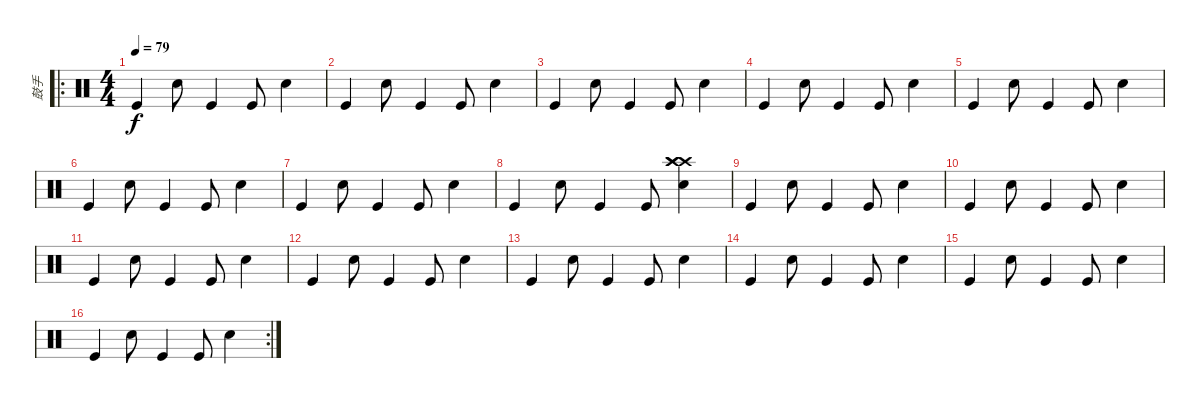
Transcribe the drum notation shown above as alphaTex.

\track ("鼓手" "鼓手") {instrument percussion}
\staff {score}
\articulation defaults
\ro
\ts (4 4)
\tempo 79
\clef neutral
\ks c "Kick (hit)".4{dy f} "Snare (hit) 2".8 "Kick (hit)".4 "Kick (hit)".8 "Snare (hit) 2".4
|
"Kick (hit)".4 "Snare (hit) 2".8 "Kick (hit)".4 "Kick (hit)".8 "Snare (hit) 2".4 |
"Kick (hit)".4 "Snare (hit) 2".8 "Kick (hit)".4 "Kick (hit)".8 "Snare (hit) 2".4 |
"Kick (hit)".4 "Snare (hit) 2".8 "Kick (hit)".4 "Kick (hit)".8 "Snare (hit) 2".4 |
"Kick (hit)".4 "Snare (hit) 2".8 "Kick (hit)".4 "Kick (hit)".8 "Snare (hit) 2".4 |
"Kick (hit)".4 "Snare (hit) 2".8 "Kick (hit)".4 "Kick (hit)".8 "Snare (hit) 2".4 |
"Kick (hit)".4 "Snare (hit) 2".8 "Kick (hit)".4 "Kick (hit)".8 "Snare (hit) 2".4 |
"Kick (hit)".4 "Snare (hit) 2".8 "Kick (hit)".4 "Kick (hit)".8 ("Snare (hit) 2" "Crash high (hit)" "Crash high (hit)" "Crash high (hit)").4 |
"Kick (hit)".4 "Snare (hit) 2".8 "Kick (hit)".4 "Kick (hit)".8 "Snare (hit) 2".4 |
"Kick (hit)".4 "Snare (hit) 2".8 "Kick (hit)".4 "Kick (hit)".8 "Snare (hit) 2".4 |
"Kick (hit)".4 "Snare (hit) 2".8 "Kick (hit)".4 "Kick (hit)".8 "Snare (hit) 2".4 |
"Kick (hit)".4 "Snare (hit) 2".8 "Kick (hit)".4 "Kick (hit)".8 "Snare (hit) 2".4 |
"Kick (hit)".4 "Snare (hit) 2".8 "Kick (hit)".4 "Kick (hit)".8 "Snare (hit) 2".4 |
"Kick (hit)".4 "Snare (hit) 2".8 "Kick (hit)".4 "Kick (hit)".8 "Snare (hit) 2".4 |
"Kick (hit)".4 "Snare (hit) 2".8 "Kick (hit)".4 "Kick (hit)".8 "Snare (hit) 2".4 |
\rc 2 "Kick (hit)".4 "Snare (hit) 2".8 "Kick (hit)".4 "Kick (hit)".8 "Snare (hit) 2".4
